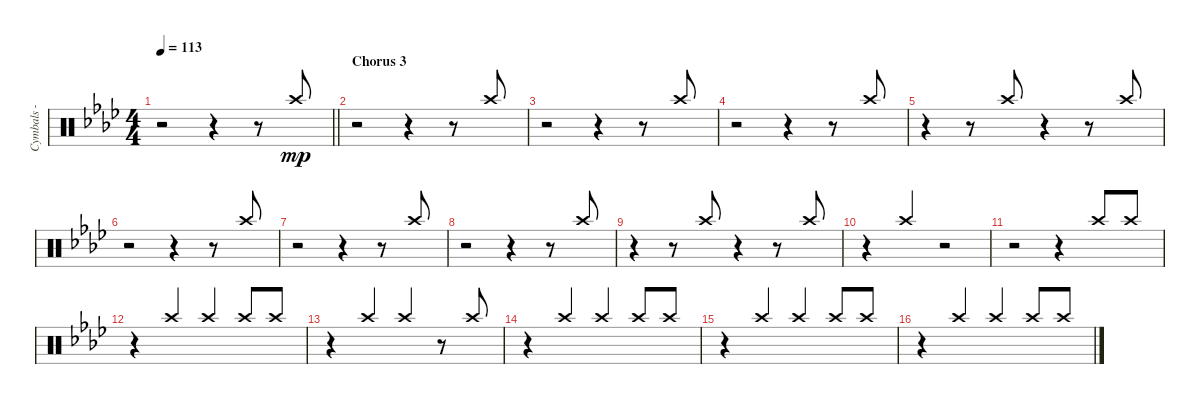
\track ("Cymbals - crash" "Cymbals - ") {instrument percussion}
\staff {score}
\articulation defaults
\ts (4 4)
\tempo 113
\clef neutral
\barLineRight lightlight
\ks fminor
r.2{dy mp} r.4 r.8 "Crash high (hit)".8{beam Up} |
\section ("" "Chorus 3")
r.2 r.4 r.8 "Crash high (hit)".8{beam Up} |
r.2 r.4 r.8 "Crash high (hit)".8{beam Up} |
r.2 r.4 r.8 "Crash high (hit)".8{beam Up} |
r.4 r.8 "Crash high (hit)".8{beam Up} r.4 r.8 "Crash high (hit)".8{beam Up} |
r.2 r.4 r.8 "Crash high (hit)".8{beam Up} |
r.2 r.4 r.8 "Crash high (hit)".8{beam Up} |
r.2 r.4 r.8 "Crash high (hit)".8{beam Up} |
r.4 r.8 "Crash high (hit)".8{beam Up} r.4 r.8 "Crash high (hit)".8{beam Up} |
r.4 "Crash high (hit)".4{beam Up} r.2 |
r.2 r.4 "Crash high (hit)".8{beam Up} "Crash high (hit)".8{beam Up} |
r.4 "Crash high (hit)".4{beam Up} "Crash high (hit)".4{beam Up} "Crash high (hit)".8{beam Up} "Crash high (hit)".8{beam Up} |
r.4 "Crash high (hit)".4{beam Up} "Crash high (hit)".4{beam Up} r.8 "Crash high (hit)".8{beam Up} |
r.4 "Crash high (hit)".4{beam Up} "Crash high (hit)".4{beam Up} "Crash high (hit)".8{beam Up} "Crash high (hit)".8{beam Up} |
r.4 "Crash high (hit)".4{beam Up} "Crash high (hit)".4{beam Up} "Crash high (hit)".8{beam Up} "Crash high (hit)".8{beam Up} |
r.4 "Crash high (hit)".4{beam Up} "Crash high (hit)".4{beam Up} "Crash high (hit)".8{beam Up} "Crash high (hit)".8{beam Up}
